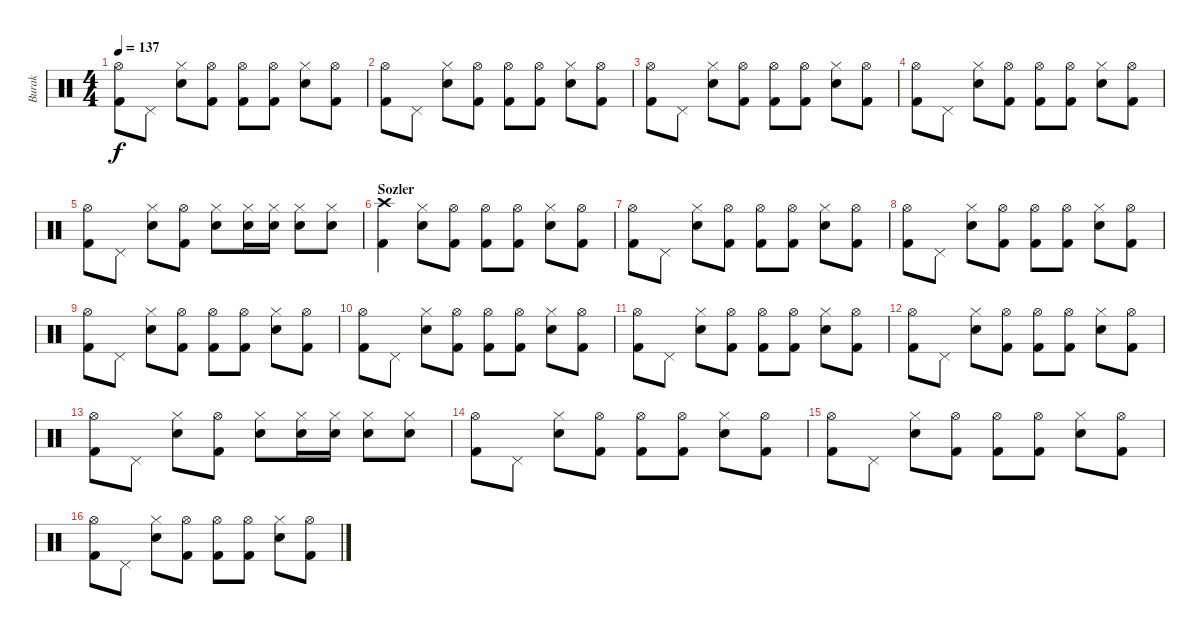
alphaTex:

\track ("Burak" "Burak") {instrument percussion}
\staff {score}
\articulation defaults
\ts (4 4)
\tempo 137
\clef neutral
\ks c
("Kick (hit) 2" "Hi-Hat (open)").8{dy f} "Pedal Hi-Hat (hit)".8 ("Electric Snare (hit)" "Hi-Hat (closed)").8 ("Kick (hit) 2" "Hi-Hat (open)").8 ("Kick (hit) 2" "Hi-Hat (open)").8 ("Kick (hit) 2" "Hi-Hat (open)").8 ("Electric Snare (hit)" "Hi-Hat (closed)").8 ("Kick (hit) 2" "Hi-Hat (open)").8 |
("Kick (hit) 2" "Hi-Hat (open)").8 "Pedal Hi-Hat (hit)".8 ("Electric Snare (hit)" "Hi-Hat (closed)").8 ("Kick (hit) 2" "Hi-Hat (open)").8 ("Kick (hit) 2" "Hi-Hat (open)").8 ("Kick (hit) 2" "Hi-Hat (open)").8 ("Electric Snare (hit)" "Hi-Hat (closed)").8 ("Kick (hit) 2" "Hi-Hat (open)").8 |
("Kick (hit) 2" "Hi-Hat (open)").8 "Pedal Hi-Hat (hit)".8 ("Electric Snare (hit)" "Hi-Hat (closed)").8 ("Kick (hit) 2" "Hi-Hat (open)").8 ("Kick (hit) 2" "Hi-Hat (open)").8 ("Kick (hit) 2" "Hi-Hat (open)").8 ("Electric Snare (hit)" "Hi-Hat (closed)").8 ("Kick (hit) 2" "Hi-Hat (open)").8 |
("Kick (hit) 2" "Hi-Hat (open)").8 "Pedal Hi-Hat (hit)".8 ("Electric Snare (hit)" "Hi-Hat (closed)").8 ("Kick (hit) 2" "Hi-Hat (open)").8 ("Kick (hit) 2" "Hi-Hat (open)").8 ("Kick (hit) 2" "Hi-Hat (open)").8 ("Electric Snare (hit)" "Hi-Hat (closed)").8 ("Kick (hit) 2" "Hi-Hat (open)").8 |
("Kick (hit) 2" "Hi-Hat (open)").8 "Pedal Hi-Hat (hit)".8 ("Electric Snare (hit)" "Hi-Hat (closed)").8 ("Kick (hit) 2" "Hi-Hat (open)").8 ("Electric Snare (hit)" "Hi-Hat (closed)").8 ("Electric Snare (hit)" "Hi-Hat (closed)").16 ("Electric Snare (hit)" "Hi-Hat (closed)").16 ("Electric Snare (hit)" "Hi-Hat (closed)").8 ("Electric Snare (hit)" "Hi-Hat (closed)").8 |
\section ("" "Sozler")
("Kick (hit) 2" "Crash high (hit)").4 ("Electric Snare (hit)" "Hi-Hat (closed)").8 ("Kick (hit) 2" "Hi-Hat (open)").8 ("Kick (hit) 2" "Hi-Hat (open)").8 ("Kick (hit) 2" "Hi-Hat (open)").8 ("Electric Snare (hit)" "Hi-Hat (closed)").8 ("Kick (hit) 2" "Hi-Hat (open)").8 |
("Kick (hit) 2" "Hi-Hat (open)").8 "Pedal Hi-Hat (hit)".8 ("Electric Snare (hit)" "Hi-Hat (closed)").8 ("Kick (hit) 2" "Hi-Hat (open)").8 ("Kick (hit) 2" "Hi-Hat (open)").8 ("Kick (hit) 2" "Hi-Hat (open)").8 ("Electric Snare (hit)" "Hi-Hat (closed)").8 ("Kick (hit) 2" "Hi-Hat (open)").8 |
("Kick (hit) 2" "Hi-Hat (open)").8 "Pedal Hi-Hat (hit)".8 ("Electric Snare (hit)" "Hi-Hat (closed)").8 ("Kick (hit) 2" "Hi-Hat (open)").8 ("Kick (hit) 2" "Hi-Hat (open)").8 ("Kick (hit) 2" "Hi-Hat (open)").8 ("Electric Snare (hit)" "Hi-Hat (closed)").8 ("Kick (hit) 2" "Hi-Hat (open)").8 |
("Kick (hit) 2" "Hi-Hat (open)").8 "Pedal Hi-Hat (hit)".8 ("Electric Snare (hit)" "Hi-Hat (closed)").8 ("Kick (hit) 2" "Hi-Hat (open)").8 ("Kick (hit) 2" "Hi-Hat (open)").8 ("Kick (hit) 2" "Hi-Hat (open)").8 ("Electric Snare (hit)" "Hi-Hat (closed)").8 ("Kick (hit) 2" "Hi-Hat (open)").8 |
("Kick (hit) 2" "Hi-Hat (open)").8 "Pedal Hi-Hat (hit)".8 ("Electric Snare (hit)" "Hi-Hat (closed)").8 ("Kick (hit) 2" "Hi-Hat (open)").8 ("Kick (hit) 2" "Hi-Hat (open)").8 ("Kick (hit) 2" "Hi-Hat (open)").8 ("Electric Snare (hit)" "Hi-Hat (closed)").8 ("Kick (hit) 2" "Hi-Hat (open)").8 |
("Kick (hit) 2" "Hi-Hat (open)").8 "Pedal Hi-Hat (hit)".8 ("Electric Snare (hit)" "Hi-Hat (closed)").8 ("Kick (hit) 2" "Hi-Hat (open)").8 ("Kick (hit) 2" "Hi-Hat (open)").8 ("Kick (hit) 2" "Hi-Hat (open)").8 ("Electric Snare (hit)" "Hi-Hat (closed)").8 ("Kick (hit) 2" "Hi-Hat (open)").8 |
("Kick (hit) 2" "Hi-Hat (open)").8 "Pedal Hi-Hat (hit)".8 ("Electric Snare (hit)" "Hi-Hat (closed)").8 ("Kick (hit) 2" "Hi-Hat (open)").8 ("Kick (hit) 2" "Hi-Hat (open)").8 ("Kick (hit) 2" "Hi-Hat (open)").8 ("Electric Snare (hit)" "Hi-Hat (closed)").8 ("Kick (hit) 2" "Hi-Hat (open)").8 |
("Kick (hit) 2" "Hi-Hat (open)").8 "Pedal Hi-Hat (hit)".8 ("Electric Snare (hit)" "Hi-Hat (closed)").8 ("Kick (hit) 2" "Hi-Hat (open)").8 ("Electric Snare (hit)" "Hi-Hat (closed)").8 ("Electric Snare (hit)" "Hi-Hat (closed)").16 ("Electric Snare (hit)" "Hi-Hat (closed)").16 ("Electric Snare (hit)" "Hi-Hat (closed)").8 ("Electric Snare (hit)" "Hi-Hat (closed)").8 |
("Kick (hit) 2" "Hi-Hat (open)").8 "Pedal Hi-Hat (hit)".8 ("Electric Snare (hit)" "Hi-Hat (closed)").8 ("Kick (hit) 2" "Hi-Hat (open)").8 ("Kick (hit) 2" "Hi-Hat (open)").8 ("Kick (hit) 2" "Hi-Hat (open)").8 ("Electric Snare (hit)" "Hi-Hat (closed)").8 ("Kick (hit) 2" "Hi-Hat (open)").8 |
("Kick (hit) 2" "Hi-Hat (open)").8 "Pedal Hi-Hat (hit)".8 ("Electric Snare (hit)" "Hi-Hat (closed)").8 ("Kick (hit) 2" "Hi-Hat (open)").8 ("Kick (hit) 2" "Hi-Hat (open)").8 ("Kick (hit) 2" "Hi-Hat (open)").8 ("Electric Snare (hit)" "Hi-Hat (closed)").8 ("Kick (hit) 2" "Hi-Hat (open)").8 |
("Kick (hit) 2" "Hi-Hat (open)").8 "Pedal Hi-Hat (hit)".8 ("Electric Snare (hit)" "Hi-Hat (closed)").8 ("Kick (hit) 2" "Hi-Hat (open)").8 ("Kick (hit) 2" "Hi-Hat (open)").8 ("Kick (hit) 2" "Hi-Hat (open)").8 ("Electric Snare (hit)" "Hi-Hat (closed)").8 ("Kick (hit) 2" "Hi-Hat (open)").8
